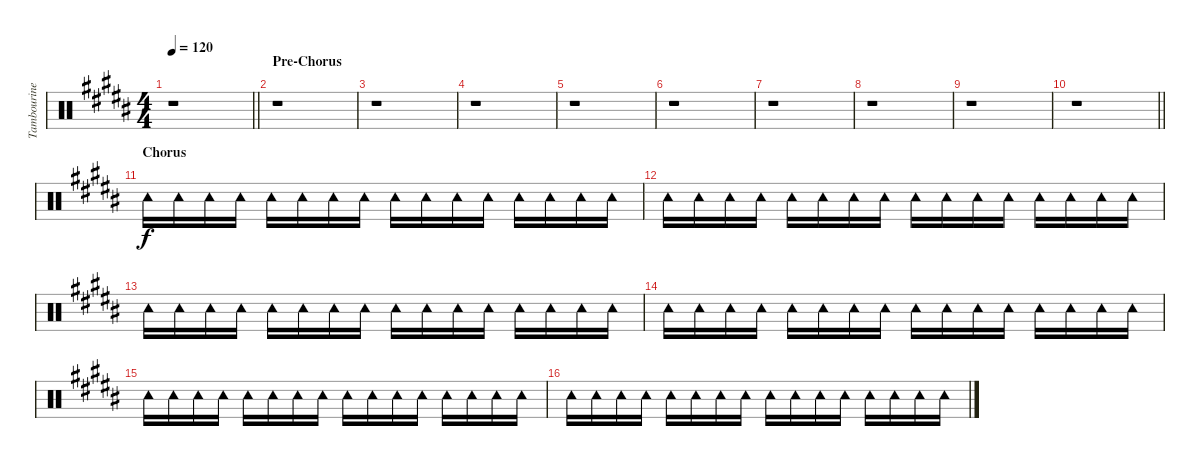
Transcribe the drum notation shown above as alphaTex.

\track ("Tambourine" "Tambourine") {instrument percussion}
\staff {score}
\articulation defaults
\ts (4 4)
\tempo 120
\clef neutral
\barLineRight lightlight
\ks b
r.1{dy f} |
\section ("" "Pre-Chorus")
r.1 |
r.1 |
r.1 |
r.1 |
r.1 |
r.1 |
r.1 |
r.1 |
\barLineRight lightlight
r.1 |
\section ("" "Chorus")
"Tambourine (hit)".16 "Tambourine (hit)".16 "Tambourine (hit)".16 "Tambourine (hit)".16 "Tambourine (hit)".16 "Tambourine (hit)".16 "Tambourine (hit)".16 "Tambourine (hit)".16 "Tambourine (hit)".16 "Tambourine (hit)".16 "Tambourine (hit)".16 "Tambourine (hit)".16 "Tambourine (hit)".16 "Tambourine (hit)".16 "Tambourine (hit)".16 "Tambourine (hit)".16 |
"Tambourine (hit)".16 "Tambourine (hit)".16 "Tambourine (hit)".16 "Tambourine (hit)".16 "Tambourine (hit)".16 "Tambourine (hit)".16 "Tambourine (hit)".16 "Tambourine (hit)".16 "Tambourine (hit)".16 "Tambourine (hit)".16 "Tambourine (hit)".16 "Tambourine (hit)".16 "Tambourine (hit)".16 "Tambourine (hit)".16 "Tambourine (hit)".16 "Tambourine (hit)".16 |
"Tambourine (hit)".16 "Tambourine (hit)".16 "Tambourine (hit)".16 "Tambourine (hit)".16 "Tambourine (hit)".16 "Tambourine (hit)".16 "Tambourine (hit)".16 "Tambourine (hit)".16 "Tambourine (hit)".16 "Tambourine (hit)".16 "Tambourine (hit)".16 "Tambourine (hit)".16 "Tambourine (hit)".16 "Tambourine (hit)".16 "Tambourine (hit)".16 "Tambourine (hit)".16 |
"Tambourine (hit)".16 "Tambourine (hit)".16 "Tambourine (hit)".16 "Tambourine (hit)".16 "Tambourine (hit)".16 "Tambourine (hit)".16 "Tambourine (hit)".16 "Tambourine (hit)".16 "Tambourine (hit)".16 "Tambourine (hit)".16 "Tambourine (hit)".16 "Tambourine (hit)".16 "Tambourine (hit)".16 "Tambourine (hit)".16 "Tambourine (hit)".16 "Tambourine (hit)".16 |
"Tambourine (hit)".16 "Tambourine (hit)".16 "Tambourine (hit)".16 "Tambourine (hit)".16 "Tambourine (hit)".16 "Tambourine (hit)".16 "Tambourine (hit)".16 "Tambourine (hit)".16 "Tambourine (hit)".16 "Tambourine (hit)".16 "Tambourine (hit)".16 "Tambourine (hit)".16 "Tambourine (hit)".16 "Tambourine (hit)".16 "Tambourine (hit)".16 "Tambourine (hit)".16 |
"Tambourine (hit)".16 "Tambourine (hit)".16 "Tambourine (hit)".16 "Tambourine (hit)".16 "Tambourine (hit)".16 "Tambourine (hit)".16 "Tambourine (hit)".16 "Tambourine (hit)".16 "Tambourine (hit)".16 "Tambourine (hit)".16 "Tambourine (hit)".16 "Tambourine (hit)".16 "Tambourine (hit)".16 "Tambourine (hit)".16 "Tambourine (hit)".16 "Tambourine (hit)".16
